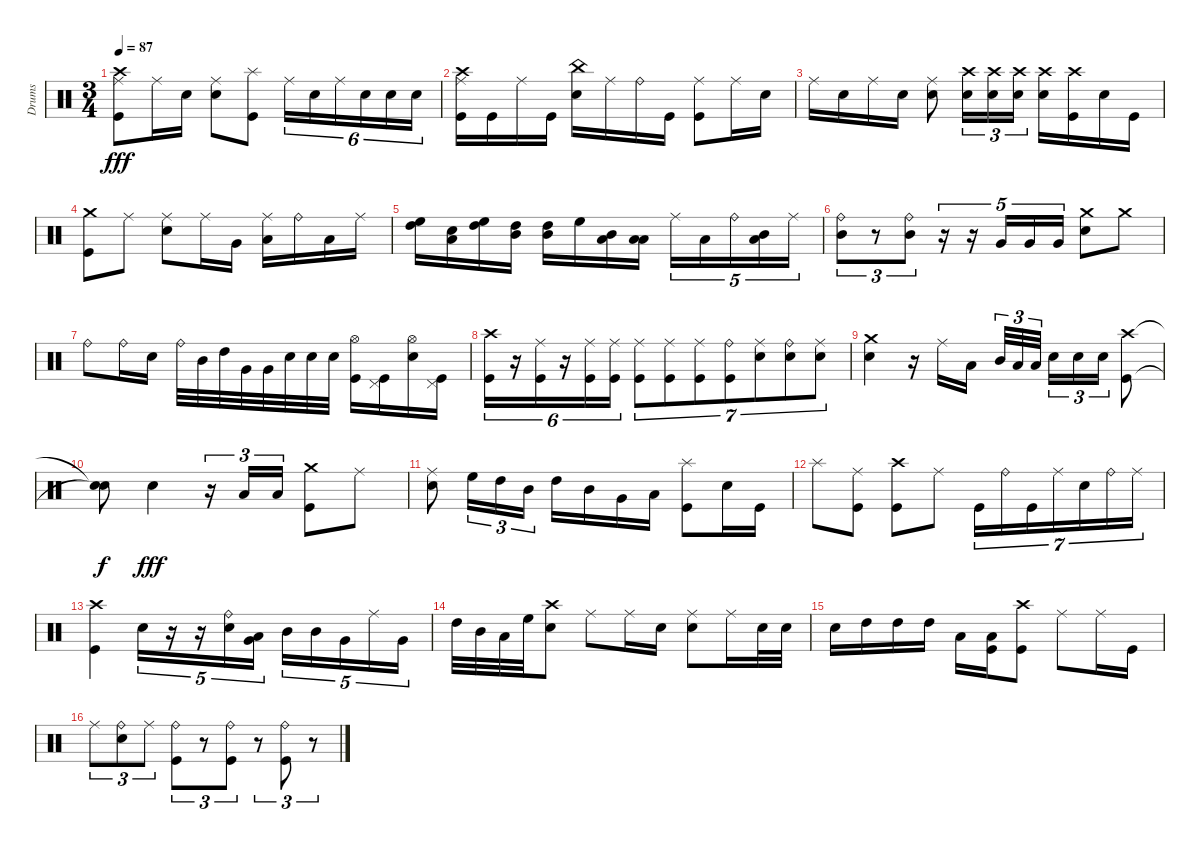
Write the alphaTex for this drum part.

\track ("Drums" "Drums") {instrument percussion}
\staff {score}
\articulation defaults
\ts (3 4)
\tempo 87
\clef neutral
\ks c
("Ride (middle)" "Crash high (hit)" "Kick (hit)").8{dy fff} "Ride (middle)".16 "Snare (hit) 2".16 ("Ride (middle)" "Snare (hit) 2").8 ("Splash (hit)" "Kick (hit)").8 "Ride (middle)".16{tu (6 4)} "Snare (hit) 2".16{tu (6 4)} "Ride (middle)".16{tu (6 4)} "Snare (hit) 2".16{tu (6 4)} "Snare (hit) 2".16{tu (6 4)} "Snare (hit) 2".16{tu (6 4)} |
("Ride (middle)" "Crash high (hit)" "Kick (hit)").16 "Kick (hit)".16 "Ride (middle)".16 "Kick (hit)".16 ("China (hit)" "Snare (hit) 2").16 "Ride (middle)".16 "Ride (bell)".16 "Kick (hit)".16 ("Ride (middle)" "Kick (hit)").8 "Ride (middle)".16 "Snare (hit) 2".16 |
"Ride (middle)".16 "Snare (hit) 2".16 "Ride (middle)".16 "Snare (hit) 2".16 ("Ride (middle)" "Snare (hit) 2").8 ("Crash high (hit)" "Snare (hit) 2").16{tu (3 2)} ("Crash high (hit)" "Snare (hit) 2").16{tu (3 2)} ("Crash high (hit)" "Snare (hit) 2").16{tu (3 2)} ("Crash high (hit)" "Snare (hit) 2").16 ("Crash high (hit)" "Kick (hit)").16 "Snare (hit) 2".16 "Kick (hit)".16 |
("Crash medium (hit)" "Kick (hit)").8 "Ride (middle)".8 ("Ride (middle)" "Snare (hit) 2").8 "Ride (middle)".16 "Very Low Tom (hit)".16 ("Ride (middle)" "Low Tom (hit)").16 "Ride (bell)".16 "Low Tom (hit)".16 "Ride (middle)".16 |
("High Floor Tom (hit)" "High Tom (hit)").16 ("Low Floor Tom (hit)" "Snare (hit) 2").16 ("High Floor Tom (hit)" "High Tom (hit)").16 ("High Tom (hit)" "Mid Tom (hit)").16 ("High Tom (hit)" "Mid Tom (hit)").16 "High Floor Tom (hit)".16 ("Mid Tom (hit)" "Low Tom (hit)").16 ("Low Tom (hit)" "Low Floor Tom (hit)").16 "Ride (middle)".16{tu (5 4)} "Low Tom (hit)".16{tu (5 4)} "Ride (bell)".16{tu (5 4)} ("Mid Tom (hit)" "Low Tom (hit)").16{tu (5 4)} "Ride (middle)".16{tu (5 4)} |
("Ride (bell)" "Mid Tom (hit)").8{tu (3 2)} r.8{tu (3 2)} ("Ride (bell)" "Mid Tom (hit)").8{tu (3 2)} r.16{tu (5 4)} r.16{tu (5 4)} "Very Low Tom (hit)".16{tu (5 4)} "Very Low Tom (hit)".16{tu (5 4)} "Very Low Tom (hit)".16{tu (5 4)} ("Crash medium (hit)" "Snare (hit) 2").8 "Crash medium (hit)".8 |
"Ride (bell)".8 "Ride (bell)".16 "Snare (hit) 2".16 "Ride (bell)".32 "Mid Tom (hit)".32 "High Tom (hit)".32 "Very Low Tom (hit)".32 "Very Low Tom (hit)".32 "Snare (hit) 2".32 "Snare (hit) 2".32 "Snare (hit) 2".32 ("Hi-Hat (open)" "Kick (hit)").16 ("Pedal Hi-Hat (hit)" "Kick (hit)").16 ("Hi-Hat (open)" "Snare (hit) 2").16 ("Pedal Hi-Hat (hit)" "Kick (hit)").16 |
("Crash high (hit)" "Kick (hit)").16{tu (6 4)} r.16{tu (6 4)} ("Ride (middle)" "Kick (hit)").16{tu (6 4)} r.16{tu (6 4)} ("Ride (middle)" "Kick (hit)").16{tu (6 4)} ("Ride (middle)" "Kick (hit)").16{tu (6 4)} ("Ride (middle)" "Kick (hit)").8{tu (7 4)} ("Ride (middle)" "Kick (hit)").8{tu (7 4)} ("Ride (middle)" "Kick (hit)").8{tu (7 4)} ("Ride (bell)" "Kick (hit)").8{tu (7 4)} ("Ride (middle)" "Snare (hit) 2").8{tu (7 4)} ("Ride (bell)" "Snare (hit) 2").8{tu (7 4)} ("Ride (middle)" "Snare (hit) 2").8{tu (7 4)} |
("Crash medium (hit)" "Snare (hit) 2").4 r.16 "Ride (middle)".16 "Low Tom (hit)".16 "Mid Tom (hit)".32{tu (3 2)} "Low Floor Tom (hit)".32{tu (3 2)} "Low Floor Tom (hit)".32{tu (3 2)} "Snare (hit) 2".16{tu (3 2)} "Snare (hit) 2".16{tu (3 2)} "Snare (hit) 2".16{tu (3 2)} ("Crash high (hit)" "Kick (hit)").8 |
("Snare (hit)"{t} "Snare (hit)"{t}).8{dy f} "Snare (hit) 2".4{dy fff} r.16{tu (3 2)} "Low Tom (hit)".16{tu (3 2)} "Low Tom (hit)".16{tu (3 2)} ("Crash medium (hit)" "Kick (hit)").8 "Ride (middle)".8 |
("Ride (middle)" "Snare (hit) 2").8 "High Floor Tom (hit)".16{tu (3 2)} "High Tom (hit)".16{tu (3 2)} "Mid Tom (hit)".16{tu (3 2)} "High Tom (hit)".16 "Mid Tom (hit)".16 "Very Low Tom (hit)".16 "Low Floor Tom (hit)".16 ("Splash (hit)" "Kick (hit)").8 "Snare (hit) 2".16 "Kick (hit)".16 |
"Splash (hit)".8 ("Ride (middle)" "Kick (hit)").8 ("Crash high (hit)" "Kick (hit)").8 "Ride (middle)".8 "Kick (hit)".16{tu (7 4)} "Ride (bell)".16{tu (7 4)} "Kick (hit)".16{tu (7 4)} "Ride (middle)".16{tu (7 4)} "Snare (hit) 2".16{tu (7 4)} "Ride (bell)".16{tu (7 4)} "Ride (middle)".16{tu (7 4)} |
("Crash high (hit)" "Kick (hit)").4 "Snare (hit) 2".16{tu (5 4)} r.16{tu (5 4)} r.16{tu (5 4)} ("Ride (bell)" "Snare (hit) 2").16{tu (5 4)} ("Low Tom (hit)" "Very Low Tom (hit)").16{tu (5 4)} "Mid Tom (hit)".16{tu (5 4)} "Mid Tom (hit)".16{tu (5 4)} "Very Low Tom (hit)".16{tu (5 4)} "Ride (middle)".16{tu (5 4)} "Very Low Tom (hit)".16{tu (5 4)} |
"High Tom (hit)".32 "Mid Tom (hit)".32 "Low Tom (hit)".32 "High Floor Tom (hit)".32 ("Crash high (hit)" "Snare (hit) 2").8 "Ride (middle)".8 "Ride (middle)".16 "Snare (hit) 2".16 ("Ride (middle)" "Snare (hit) 2").8 "Ride (middle)".16 "Snare (hit) 2".32 "Snare (hit) 2".32 |
"Snare (hit) 2".16 "High Tom (hit)".16 "High Tom (hit)".16 "High Tom (hit)".16 "Low Floor Tom (hit)".16 ("Low Floor Tom (hit)" "Kick (hit)").16 ("Crash high (hit)" "Kick (hit)").8 "Ride (middle)".8 "Ride (middle)".16 "Kick (hit)".16 |
"Ride (middle)".8{tu (3 2)} ("Ride (bell)" "Snare (hit) 2").8{tu (3 2)} "Ride (middle)".8{tu (3 2)} ("Ride (bell)" "Kick (hit)").8{tu (3 2)} r.8{tu (3 2)} ("Ride (bell)" "Kick (hit)").8{tu (3 2)} r.8{tu (3 2)} ("Ride (bell)" "Kick (hit)").8{tu (3 2)} r.8{tu (3 2)}
